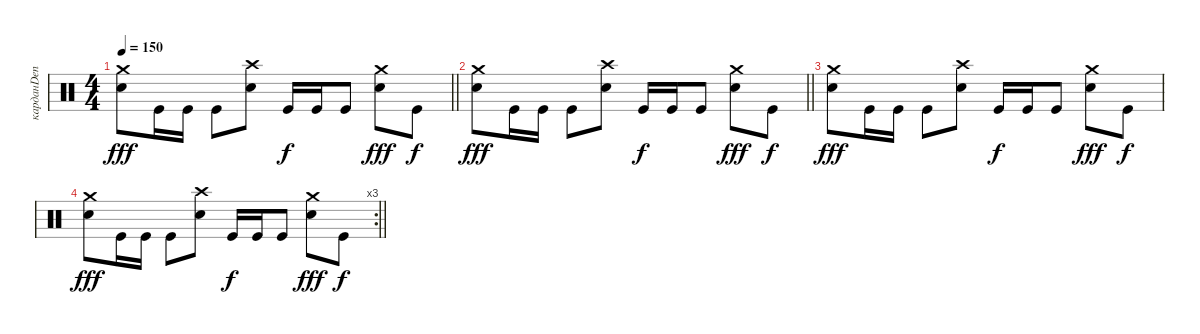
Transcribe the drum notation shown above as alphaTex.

\track ("карданDen" "карданDen") {instrument percussion}
\staff {score}
\articulation defaults
\ts (4 4)
\tempo 150
\clef neutral
\barLineRight lightlight
\ks c
("Crash medium (hit)" "Electric Snare (hit)").8{dy fff} "Kick (hit)".16 "Kick (hit)".16 "Kick (hit)".8 ("Crash high (hit)" "Electric Snare (hit)").8 "Kick (hit)".16{dy f} "Kick (hit)".16 "Kick (hit)".8 ("Crash medium (hit)" "Electric Snare (hit)").8{dy fff} "Kick (hit)".8{dy f} |
\barLineRight lightlight
("Crash medium (hit)" "Electric Snare (hit)").8{dy fff} "Kick (hit)".16 "Kick (hit)".16 "Kick (hit)".8 ("Crash high (hit)" "Electric Snare (hit)").8 "Kick (hit)".16{dy f} "Kick (hit)".16 "Kick (hit)".8 ("Crash medium (hit)" "Electric Snare (hit)").8{dy fff} "Kick (hit)".8{dy f} |
\section ("" "")
("Crash medium (hit)" "Electric Snare (hit)").8{dy fff} "Kick (hit)".16 "Kick (hit)".16 "Kick (hit)".8 ("Crash high (hit)" "Electric Snare (hit)").8 "Kick (hit)".16{dy f} "Kick (hit)".16 "Kick (hit)".8 ("Crash medium (hit)" "Electric Snare (hit)").8{dy fff} "Kick (hit)".8{dy f} |
\rc 3
\barLineRight lightlight
("Crash medium (hit)" "Electric Snare (hit)").8{dy fff} "Kick (hit)".16 "Kick (hit)".16 "Kick (hit)".8 ("Crash high (hit)" "Electric Snare (hit)").8 "Kick (hit)".16{dy f} "Kick (hit)".16 "Kick (hit)".8 ("Crash medium (hit)" "Electric Snare (hit)").8{dy fff} "Kick (hit)".8{dy f}
